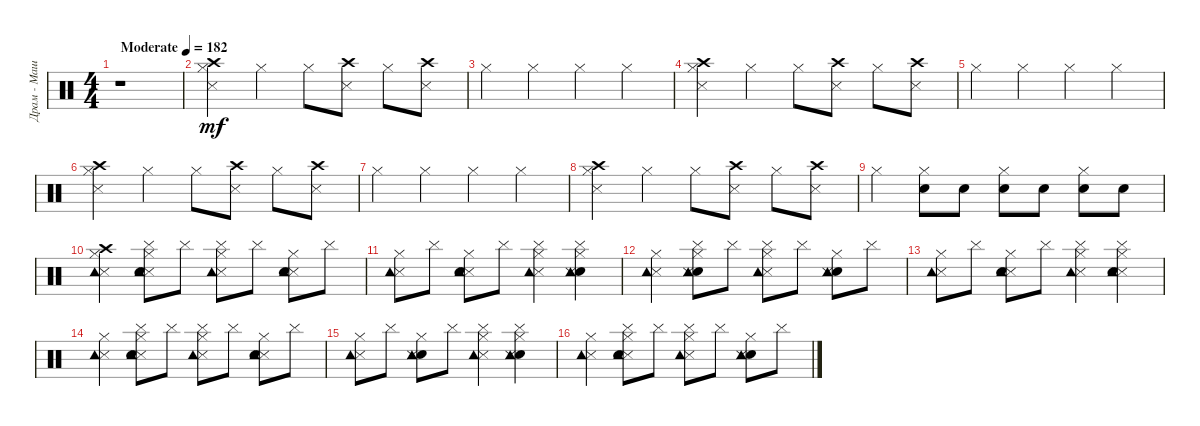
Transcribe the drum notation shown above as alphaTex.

\track ("Драм - Машина" "Драм - Маш") {instrument percussion}
\staff {score}
\articulation defaults
\ts (4 4)
\tempo (182 "Moderate")
\clef neutral
\ks c
r.1{dy mf} |
("Crash high (hit)" "Metronome (hit)" "Hi-Hat (closed)").4 "Hi-Hat (closed)".4 "Hi-Hat (closed)".8 ("Metronome (hit)" "Crash high (hit)").8 "Hi-Hat (closed)".8 ("Metronome (hit)" "Crash high (hit)").8 |
"Hi-Hat (closed)".4 "Hi-Hat (closed)".4 "Hi-Hat (closed)".4 "Hi-Hat (closed)".4 |
("Crash high (hit)" "Metronome (hit)" "Hi-Hat (closed)").4 "Hi-Hat (closed)".4 "Hi-Hat (closed)".8 ("Crash high (hit)" "Metronome (hit)").8 "Hi-Hat (closed)".8 ("Crash high (hit)" "Metronome (hit)").8 |
"Hi-Hat (closed)".4 "Hi-Hat (closed)".4 "Hi-Hat (closed)".4 "Hi-Hat (closed)".4 |
("Crash high (hit)" "Metronome (hit)" "Hi-Hat (closed)").4 "Hi-Hat (closed)".4 "Hi-Hat (closed)".8 ("Crash high (hit)" "Metronome (hit)").8 "Hi-Hat (closed)".8 ("Crash high (hit)" "Metronome (hit)").8 |
"Hi-Hat (closed)".4 "Hi-Hat (closed)".4 "Hi-Hat (closed)".4 "Hi-Hat (closed)".4 |
("Crash high (hit)" "Metronome (hit)" "Hi-Hat (closed)").4 "Hi-Hat (closed)".4 "Hi-Hat (closed)".8 ("Crash high (hit)" "Metronome (hit)").8 "Hi-Hat (closed)".8 ("Metronome (hit)" "Crash high (hit)").8 |
"Hi-Hat (closed)".4 ("Metronome (bell)" "Hi-Hat (closed)").8 "Metronome (bell)".8 ("Metronome (bell)" "Hi-Hat (closed)").8 "Metronome (bell)".8 ("Metronome (bell)" "Hi-Hat (closed)").8 "Metronome (bell)".8 |
("Metronome (hit)" "Crash high (hit)" "Tambourine (hit)" "Hi-Hat (closed)").4 ("Metronome (hit)" "Metronome (bell)" "Tambourine (hit)" "Hi-Hat (closed)" "Cymbal (hit)").8 "Cymbal (hit)".8 ("Metronome (hit)" "Hi-Hat (closed)" "Tambourine (hit)" "Cymbal (hit)").8 "Cymbal (hit)".8 ("Metronome (hit)" "Metronome (bell)" "Tambourine (hit)" "Hi-Hat (closed)").8 "Cymbal (hit)".8 |
("Metronome (hit)" "Hi-Hat (closed)" "Tambourine (hit)").8 "Cymbal (hit)".8 ("Metronome (hit)" "Metronome (bell)" "Tambourine (hit)" "Hi-Hat (closed)").8 "Cymbal (hit)".8 ("Metronome (hit)" "Hi-Hat (closed)" "Tambourine (hit)" "Cymbal (hit)").4 ("Metronome (bell)" "Metronome (hit)" "Hi-Hat (closed)" "Tambourine (hit)" "Cymbal (hit)").4 |
("Metronome (hit)" "Hi-Hat (closed)" "Tambourine (hit)").4 ("Metronome (bell)" "Metronome (hit)" "Tambourine (hit)" "Hi-Hat (closed)" "Cymbal (hit)").8 "Cymbal (hit)".8 ("Metronome (hit)" "Tambourine (hit)" "Hi-Hat (closed)" "Cymbal (hit)").8 "Cymbal (hit)".8 ("Metronome (bell)" "Metronome (hit)" "Tambourine (hit)" "Hi-Hat (closed)").8 "Cymbal (hit)".8 |
("Metronome (hit)" "Tambourine (hit)" "Hi-Hat (closed)").8 "Cymbal (hit)".8 ("Metronome (hit)" "Metronome (bell)" "Hi-Hat (closed)" "Tambourine (hit)").8 "Cymbal (hit)".8 ("Metronome (hit)" "Hi-Hat (closed)" "Tambourine (hit)" "Cymbal (hit)").4 ("Metronome (hit)" "Metronome (bell)" "Hi-Hat (closed)" "Tambourine (hit)" "Cymbal (hit)").4 |
("Metronome (hit)" "Tambourine (hit)" "Hi-Hat (closed)").4 ("Metronome (hit)" "Metronome (bell)" "Cymbal (hit)" "Tambourine (hit)" "Hi-Hat (closed)").8 "Cymbal (hit)".8 ("Metronome (hit)" "Cymbal (hit)" "Hi-Hat (closed)" "Tambourine (hit)").8 "Cymbal (hit)".8 ("Metronome (hit)" "Metronome (bell)" "Tambourine (hit)" "Hi-Hat (closed)").8 "Cymbal (hit)".8 |
("Metronome (hit)" "Hi-Hat (closed)" "Tambourine (hit)").8 "Cymbal (hit)".8 ("Metronome (bell)" "Metronome (hit)" "Tambourine (hit)" "Hi-Hat (closed)").8 "Cymbal (hit)".8 ("Metronome (hit)" "Cymbal (hit)" "Hi-Hat (closed)" "Tambourine (hit)").4 ("Metronome (bell)" "Metronome (hit)" "Cymbal (hit)" "Hi-Hat (closed)" "Tambourine (hit)").4 |
("Metronome (hit)" "Hi-Hat (closed)" "Tambourine (hit)").4 ("Metronome (hit)" "Metronome (bell)" "Cymbal (hit)" "Tambourine (hit)" "Hi-Hat (closed)").8 "Cymbal (hit)".8 ("Metronome (hit)" "Cymbal (hit)" "Tambourine (hit)" "Hi-Hat (closed)").8 "Cymbal (hit)".8 ("Metronome (bell)" "Metronome (hit)" "Tambourine (hit)" "Hi-Hat (closed)").8 "Cymbal (hit)".8
